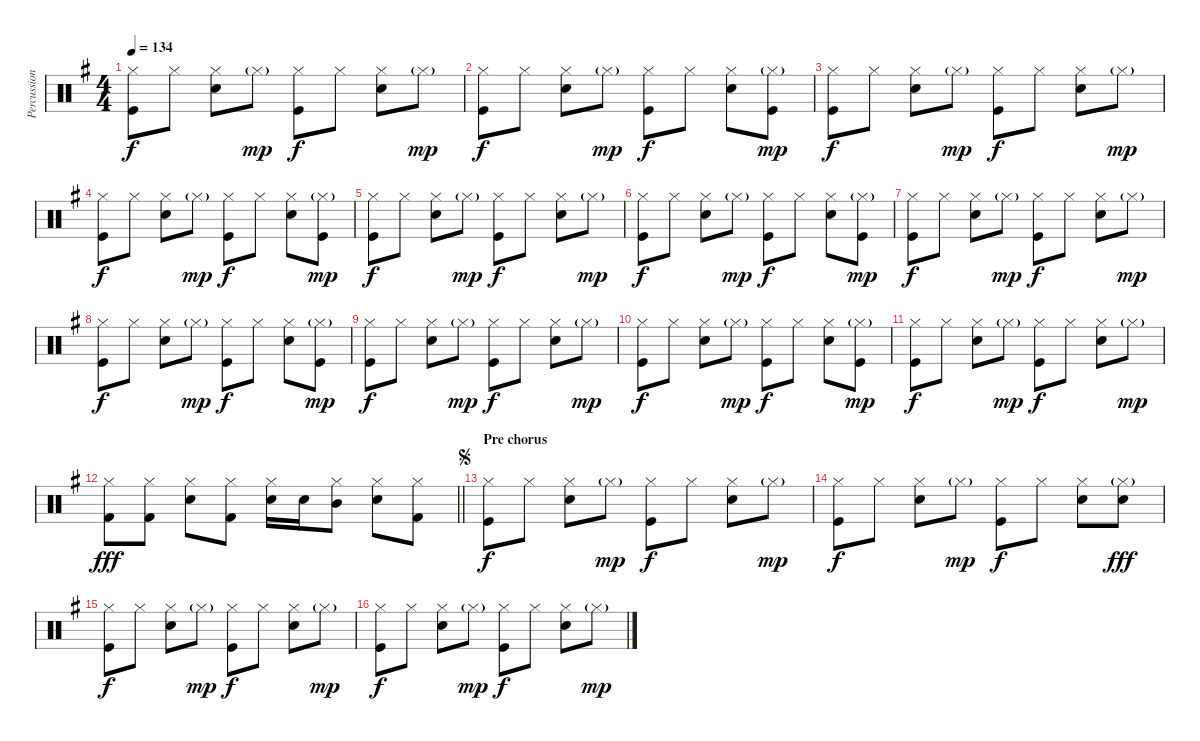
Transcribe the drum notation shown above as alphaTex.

\track ("Percussion" "Percussion") {instrument percussion}
\staff {score}
\articulation defaults
\ts (4 4)
\tempo 134
\clef neutral
\ks g
("Hi-Hat (closed)" "Kick (hit)").8{dy f} "Hi-Hat (closed)".8 ("Hi-Hat (closed)" "Snare (hit) 2").8 "Hi-Hat (closed)"{g}.8{dy mp} ("Hi-Hat (closed)" "Kick (hit)").8{dy f} "Hi-Hat (closed)".8 ("Hi-Hat (closed)" "Snare (hit) 2").8 "Hi-Hat (closed)"{g}.8{dy mp} |
("Hi-Hat (closed)" "Kick (hit)").8{dy f} "Hi-Hat (closed)".8 ("Hi-Hat (closed)" "Snare (hit) 2").8 "Hi-Hat (closed)"{g}.8{dy mp} ("Hi-Hat (closed)" "Kick (hit)").8{dy f} "Hi-Hat (closed)".8 ("Hi-Hat (closed)" "Snare (hit) 2").8 ("Hi-Hat (closed)"{g} "Kick (hit)").8{dy mp} |
("Hi-Hat (closed)" "Kick (hit)").8{dy f} "Hi-Hat (closed)".8 ("Hi-Hat (closed)" "Snare (hit) 2").8 "Hi-Hat (closed)"{g}.8{dy mp} ("Hi-Hat (closed)" "Kick (hit)").8{dy f} "Hi-Hat (closed)".8 ("Hi-Hat (closed)" "Snare (hit) 2").8 "Hi-Hat (closed)"{g}.8{dy mp} |
("Hi-Hat (closed)" "Kick (hit)").8{dy f} "Hi-Hat (closed)".8 ("Hi-Hat (closed)" "Snare (hit) 2").8 "Hi-Hat (closed)"{g}.8{dy mp} ("Hi-Hat (closed)" "Kick (hit)").8{dy f} "Hi-Hat (closed)".8 ("Hi-Hat (closed)" "Snare (hit) 2").8 ("Hi-Hat (closed)"{g} "Kick (hit)").8{dy mp} |
("Hi-Hat (closed)" "Kick (hit)").8{dy f} "Hi-Hat (closed)".8 ("Hi-Hat (closed)" "Snare (hit) 2").8 "Hi-Hat (closed)"{g}.8{dy mp} ("Hi-Hat (closed)" "Kick (hit)").8{dy f} "Hi-Hat (closed)".8 ("Hi-Hat (closed)" "Snare (hit) 2").8 "Hi-Hat (closed)"{g}.8{dy mp} |
("Hi-Hat (closed)" "Kick (hit)").8{dy f} "Hi-Hat (closed)".8 ("Hi-Hat (closed)" "Snare (hit) 2").8 "Hi-Hat (closed)"{g}.8{dy mp} ("Hi-Hat (closed)" "Kick (hit)").8{dy f} "Hi-Hat (closed)".8 ("Hi-Hat (closed)" "Snare (hit) 2").8 ("Hi-Hat (closed)"{g} "Kick (hit)").8{dy mp} |
("Hi-Hat (closed)" "Kick (hit)").8{dy f} "Hi-Hat (closed)".8 ("Hi-Hat (closed)" "Snare (hit) 2").8 "Hi-Hat (closed)"{g}.8{dy mp} ("Hi-Hat (closed)" "Kick (hit)").8{dy f} "Hi-Hat (closed)".8 ("Hi-Hat (closed)" "Snare (hit) 2").8 "Hi-Hat (closed)"{g}.8{dy mp} |
("Hi-Hat (closed)" "Kick (hit)").8{dy f} "Hi-Hat (closed)".8 ("Hi-Hat (closed)" "Snare (hit) 2").8 "Hi-Hat (closed)"{g}.8{dy mp} ("Hi-Hat (closed)" "Kick (hit)").8{dy f} "Hi-Hat (closed)".8 ("Hi-Hat (closed)" "Snare (hit) 2").8 ("Hi-Hat (closed)"{g} "Kick (hit)").8{dy mp} |
("Hi-Hat (closed)" "Kick (hit)").8{dy f} "Hi-Hat (closed)".8 ("Hi-Hat (closed)" "Snare (hit) 2").8 "Hi-Hat (closed)"{g}.8{dy mp} ("Hi-Hat (closed)" "Kick (hit)").8{dy f} "Hi-Hat (closed)".8 ("Hi-Hat (closed)" "Snare (hit) 2").8 "Hi-Hat (closed)"{g}.8{dy mp} |
("Hi-Hat (closed)" "Kick (hit)").8{dy f} "Hi-Hat (closed)".8 ("Hi-Hat (closed)" "Snare (hit) 2").8 "Hi-Hat (closed)"{g}.8{dy mp} ("Hi-Hat (closed)" "Kick (hit)").8{dy f} "Hi-Hat (closed)".8 ("Hi-Hat (closed)" "Snare (hit) 2").8 ("Hi-Hat (closed)"{g} "Kick (hit)").8{dy mp} |
("Hi-Hat (closed)" "Kick (hit)").8{dy f} "Hi-Hat (closed)".8 ("Hi-Hat (closed)" "Snare (hit) 2").8 "Hi-Hat (closed)"{g}.8{dy mp} ("Hi-Hat (closed)" "Kick (hit)").8{dy f} "Hi-Hat (closed)".8 ("Hi-Hat (closed)" "Snare (hit) 2").8 "Hi-Hat (closed)"{g}.8{dy mp} |
\barLineRight lightlight
("Hi-Hat (closed)" "Kick (hit) 2").8{dy fff} ("Hi-Hat (closed)" "Kick (hit) 2").8 ("Hi-Hat (closed)" "Snare (hit) 2").8 ("Hi-Hat (closed)" "Kick (hit) 2").8 ("Hi-Hat (closed)" "Snare (hit) 2").16 "Snare (hit) 2".16 ("Hi-Hat (closed)" "Mid Tom (hit)").8 ("Hi-Hat (closed)" "Snare (hit) 2").8 ("Hi-Hat (closed)" "Kick (hit) 2").8 |
\section ("" "Pre chorus")
\jump segno
("Hi-Hat (closed)" "Kick (hit)").8{dy f} "Hi-Hat (closed)".8 ("Hi-Hat (closed)" "Snare (hit) 2").8 "Hi-Hat (closed)"{g}.8{dy mp} ("Hi-Hat (closed)" "Kick (hit)").8{dy f} "Hi-Hat (closed)".8 ("Hi-Hat (closed)" "Snare (hit) 2").8 "Hi-Hat (closed)"{g}.8{dy mp} |
("Hi-Hat (closed)" "Kick (hit)").8{dy f} "Hi-Hat (closed)".8 ("Hi-Hat (closed)" "Snare (hit) 2").8 "Hi-Hat (closed)"{g}.8{dy mp} ("Hi-Hat (closed)" "Kick (hit)").8{dy f} "Hi-Hat (closed)".8 ("Hi-Hat (closed)" "Snare (hit) 2").8 ("Hi-Hat (closed)"{g} "Snare (hit) 2").8{dy fff} |
("Hi-Hat (closed)" "Kick (hit)").8{dy f} "Hi-Hat (closed)".8 ("Hi-Hat (closed)" "Snare (hit) 2").8 "Hi-Hat (closed)"{g}.8{dy mp} ("Hi-Hat (closed)" "Kick (hit)").8{dy f} "Hi-Hat (closed)".8 ("Hi-Hat (closed)" "Snare (hit) 2").8 "Hi-Hat (closed)"{g}.8{dy mp} |
("Hi-Hat (closed)" "Kick (hit)").8{dy f} "Hi-Hat (closed)".8 ("Hi-Hat (closed)" "Snare (hit) 2").8 "Hi-Hat (closed)"{g}.8{dy mp} ("Hi-Hat (closed)" "Kick (hit)").8{dy f} "Hi-Hat (closed)".8 ("Hi-Hat (closed)" "Snare (hit) 2").8 "Hi-Hat (closed)"{g}.8{dy mp}
